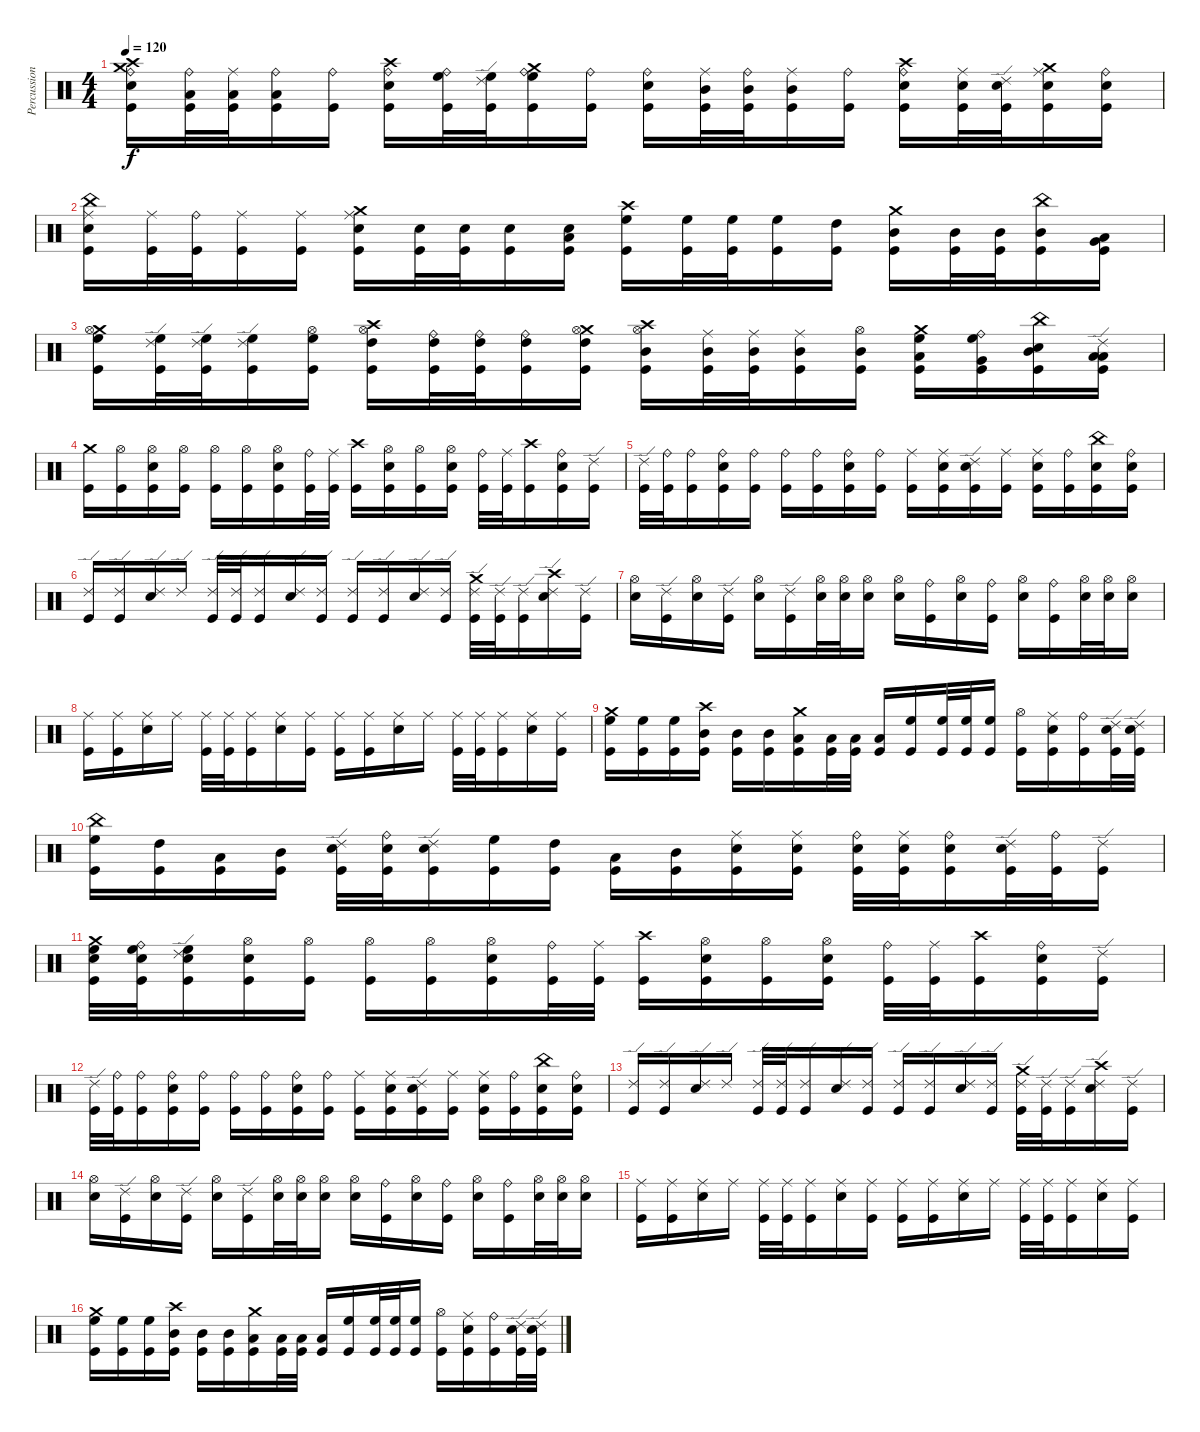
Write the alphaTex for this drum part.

\track ("Percussion" "Percussion") {instrument percussion}
\staff {score}
\articulation defaults
\ts (4 4)
\tempo 120
\clef neutral
\ks c
("Crash medium (hit)" "Crash high (hit)" "Ride (bell)" "Snare (hit) 2" "Kick (hit)").16{dy f} ("Ride (bell)" "Low Tom (hit)" "Kick (hit)").32 ("Ride (middle)" "Low Tom (hit)" "Kick (hit)").32 ("Ride (bell)" "Low Tom (hit)" "Kick (hit)").16 ("Ride (bell)" "Kick (hit)").16 ("Crash high (hit)" "Ride (bell)" "Snare (hit) 2" "Kick (hit)").16 ("Ride (bell)" "High Floor Tom (hit)" "Kick (hit)").32 ("Ride (edge) 2" "High Floor Tom (hit)" "Kick (hit)").32 ("Crash medium (hit)" "Ride (bell)" "High Floor Tom (hit)" "Kick (hit)").16 ("Ride (bell)" "Kick (hit)").16 ("Ride (bell)" "Snare (hit) 2" "Kick (hit)").16 ("Ride (middle)" "Mid Tom (hit)" "Kick (hit)").32 ("Ride (bell)" "Mid Tom (hit)" "Kick (hit)").32 ("Ride (middle)" "Mid Tom (hit)" "Kick (hit)").16 ("Ride (bell)" "Kick (hit)").16 ("Crash high (hit)" "Ride (bell)" "Snare (hit) 2" "Kick (hit)").16 ("Ride (middle)" "Snare (hit) 2" "Kick (hit)").32 ("Ride (edge) 2" "Snare (hit) 2" "Kick (hit)").32 ("Crash medium (hit)" "Ride (middle)" "Snare (hit) 2" "Kick (hit)").16 ("Ride (bell)" "Snare (hit) 2" "Kick (hit)").16 |
("China (hit)" "Ride (middle)" "Snare (hit) 2" "Kick (hit)").16 ("Ride (middle)" "Kick (hit)").32 ("Ride (bell)" "Kick (hit)").32 ("Ride (middle)" "Kick (hit)").16 ("Ride (middle)" "Kick (hit)").16 ("Crash medium (hit)" "Ride (middle)" "Snare (hit) 2" "Kick (hit)").16 ("Snare (hit) 2" "Kick (hit)").32 ("Snare (hit) 2" "Kick (hit)").32 ("Snare (hit) 2" "Kick (hit)").16 ("Snare (hit) 2" "Low Floor Tom (hit)" "Kick (hit)").16 ("Crash high (hit)" "High Floor Tom (hit)" "Kick (hit)").16 ("High Floor Tom (hit)" "Kick (hit)").32 ("High Floor Tom (hit)" "Kick (hit)").32 ("High Floor Tom (hit)" "Kick (hit)").16 ("High Tom (hit)" "Kick (hit)").16 ("Crash medium (hit)" "Mid Tom (hit)" "Kick (hit)").16 ("Mid Tom (hit)" "Kick (hit)").32 ("Mid Tom (hit)" "Kick (hit)").32 ("China (hit)" "Mid Tom (hit)" "Kick (hit)").16 ("Very Low Tom (hit)" "Low Floor Tom (hit)" "Kick (hit)").16 |
("Crash medium (hit)" "Hi-Hat (open)" "High Floor Tom (hit)" "Kick (hit)").16 ("Ride (edge) 2" "High Floor Tom (hit)" "Kick (hit)").32 ("Ride (edge) 2" "High Floor Tom (hit)" "Kick (hit)").32 ("Ride (edge) 2" "High Floor Tom (hit)" "Kick (hit)").16 ("Hi-Hat (open)" "High Floor Tom (hit)" "Kick (hit)").16 ("Crash high (hit)" "Hi-Hat (open)" "High Tom (hit)" "Kick (hit)").16 ("Ride (bell)" "High Tom (hit)" "Kick (hit)").32 ("Ride (bell)" "High Tom (hit)" "Kick (hit)").32 ("Ride (bell)" "High Tom (hit)" "Kick (hit)").16 ("Crash medium (hit)" "Hi-Hat (open)" "High Tom (hit)" "Kick (hit)").16 ("Crash high (hit)" "Hi-Hat (open)" "Mid Tom (hit)" "Kick (hit)").16 ("Ride (middle)" "Mid Tom (hit)" "Kick (hit)").32 ("Ride (middle)" "Mid Tom (hit)" "Kick (hit)").32 ("Ride (middle)" "Mid Tom (hit)" "Kick (hit)").16 ("Hi-Hat (open)" "Mid Tom (hit)" "Kick (hit)").16 ("Crash medium (hit)" "High Floor Tom (hit)" "Low Floor Tom (hit)" "Kick (hit)").16 ("Ride (bell)" "High Floor Tom (hit)" "Very Low Tom (hit)" "Kick (hit)").16 ("China (hit)" "Mid Tom (hit)" "Snare (hit) 2" "Kick (hit)").16 ("Ride (edge) 2" "Low Tom (hit)" "Low Floor Tom (hit)" "Kick (hit)").16 |
("Crash medium (hit)" "Kick (hit)").16 ("Hi-Hat (open)" "Kick (hit)").16 ("Hi-Hat (open)" "Snare (hit) 2" "Kick (hit)").16 ("Hi-Hat (open)" "Kick (hit)").16 ("Hi-Hat (open)" "Kick (hit)").16 ("Hi-Hat (open)" "Kick (hit)").16 ("Hi-Hat (open)" "Snare (hit) 2" "Kick (hit)").16 ("Ride (bell)" "Kick (hit)").32 ("Ride (middle)" "Kick (hit)").32 ("Crash high (hit)" "Kick (hit)").16 ("Hi-Hat (open)" "Snare (hit) 2" "Kick (hit)").16 ("Hi-Hat (open)" "Kick (hit)").16 ("Hi-Hat (open)" "Snare (hit) 2" "Kick (hit)").16 ("Ride (bell)" "Kick (hit)").32 ("Ride (middle)" "Kick (hit)").32 ("Crash high (hit)" "Kick (hit)").16 ("Ride (bell)" "Snare (hit) 2" "Kick (hit)").16 ("Ride (edge) 2" "Kick (hit)").16 |
("Ride (edge) 2" "Kick (hit)").32 ("Ride (bell)" "Kick (hit)").32 ("Ride (bell)" "Kick (hit)").16 ("Ride (bell)" "Snare (hit) 2" "Kick (hit)").16 ("Ride (bell)" "Kick (hit)").16 ("Ride (bell)" "Kick (hit)").16 ("Ride (bell)" "Kick (hit)").16 ("Ride (bell)" "Snare (hit) 2" "Kick (hit)").16 ("Ride (bell)" "Kick (hit)").16 ("Ride (middle)" "Kick (hit)").16 ("Ride (middle)" "Snare (hit) 2" "Kick (hit)").16 ("Ride (edge) 2" "Snare (hit) 2" "Kick (hit)").16 ("Ride (middle)" "Kick (hit)").16 ("Ride (middle)" "Snare (hit) 2" "Kick (hit)").16 ("Ride (bell)" "Kick (hit)").16 ("China (hit)" "Snare (hit) 2" "Kick (hit)").16 ("Ride (bell)" "Snare (hit) 2" "Kick (hit)").16 |
("Ride (edge) 2" "Kick (hit)").16 ("Ride (edge) 2" "Kick (hit)").16 ("Ride (edge) 2" "Snare (hit) 2").16 "Ride (edge) 2".16 ("Ride (edge) 2" "Kick (hit)").32 ("Ride (edge) 2" "Kick (hit)").32 ("Ride (edge) 2" "Kick (hit)").16 ("Ride (edge) 2" "Snare (hit) 2").16 ("Ride (edge) 2" "Kick (hit)").16 ("Ride (edge) 2" "Kick (hit)").16 ("Ride (edge) 2" "Kick (hit)").16 ("Ride (edge) 2" "Snare (hit) 2").16 ("Ride (edge) 2" "Kick (hit)").16 ("Crash medium (hit)" "Ride (edge) 2" "Kick (hit)").32 ("Ride (edge) 2" "Kick (hit)").32 ("Ride (edge) 2" "Kick (hit)").16 ("Crash high (hit)" "Ride (edge) 2" "Snare (hit) 2").16 ("Ride (edge) 2" "Kick (hit)").16 |
("Hi-Hat (open)" "Snare (hit) 2").16 ("Ride (edge) 2" "Kick (hit)").16 ("Hi-Hat (open)" "Snare (hit) 2").16 ("Ride (edge) 2" "Kick (hit)").16 ("Hi-Hat (open)" "Snare (hit) 2").16 ("Ride (edge) 2" "Kick (hit)").16 ("Hi-Hat (open)" "Snare (hit) 2").32 ("Hi-Hat (open)" "Snare (hit) 2").32 ("Hi-Hat (open)" "Snare (hit) 2").16 ("Hi-Hat (open)" "Snare (hit) 2").16 ("Ride (bell)" "Kick (hit)").16 ("Hi-Hat (open)" "Snare (hit) 2").16 ("Ride (bell)" "Kick (hit)").16 ("Hi-Hat (open)" "Snare (hit) 2").16 ("Ride (bell)" "Kick (hit)").16 ("Hi-Hat (open)" "Snare (hit) 2").32 ("Hi-Hat (open)" "Snare (hit) 2").32 ("Hi-Hat (open)" "Snare (hit) 2").16 |
("Ride (middle)" "Kick (hit)").16 ("Ride (middle)" "Kick (hit)").16 ("Ride (middle)" "Snare (hit) 2").16 "Ride (middle)".16 ("Ride (middle)" "Kick (hit)").32 ("Ride (middle)" "Kick (hit)").32 ("Ride (middle)" "Kick (hit)").16 ("Ride (middle)" "Snare (hit) 2").16 ("Ride (middle)" "Kick (hit)").16 ("Ride (middle)" "Kick (hit)").16 ("Ride (middle)" "Kick (hit)").16 ("Ride (middle)" "Snare (hit) 2").16 "Ride (middle)".16 ("Ride (middle)" "Kick (hit)").32 ("Ride (middle)" "Kick (hit)").32 ("Ride (middle)" "Kick (hit)").16 ("Ride (middle)" "Snare (hit) 2").16 ("Ride (middle)" "Kick (hit)").16 |
("Crash medium (hit)" "High Floor Tom (hit)" "Kick (hit)").16 ("High Floor Tom (hit)" "Kick (hit)").16 ("High Floor Tom (hit)" "Kick (hit)").16 ("Crash high (hit)" "Mid Tom (hit)" "Kick (hit)").16 ("Mid Tom (hit)" "Kick (hit)").16 ("Mid Tom (hit)" "Kick (hit)").16 ("Crash medium (hit)" "Low Tom (hit)" "Kick (hit)").16 ("Low Tom (hit)" "Kick (hit)").32 ("Low Tom (hit)" "Kick (hit)").32 ("Low Tom (hit)" "Kick (hit)").16 ("High Floor Tom (hit)" "Kick (hit)").16 ("High Floor Tom (hit)" "Kick (hit)").32 ("High Floor Tom (hit)" "Kick (hit)").32 ("High Floor Tom (hit)" "Kick (hit)").16 ("Hi-Hat (open)" "Kick (hit)").16 ("Ride (middle)" "Snare (hit) 2" "Kick (hit)").16 ("Ride (bell)" "Kick (hit)").16 ("Ride (edge) 2" "Snare (hit) 2" "Kick (hit)").32 ("Ride (edge) 2" "Snare (hit) 2" "Kick (hit)").32 |
("China (hit)" "High Floor Tom (hit)" "Kick (hit)").16 ("High Tom (hit)" "Kick (hit)").16 ("Low Tom (hit)" "Kick (hit)").16 ("Mid Tom (hit)" "Kick (hit)").16 ("Ride (edge) 2" "Snare (hit) 2" "Kick (hit)").32 ("Ride (bell)" "Snare (hit) 2" "Kick (hit)").32 ("Ride (edge) 2" "Snare (hit) 2" "Kick (hit)").16 ("High Floor Tom (hit)" "Kick (hit)").16 ("High Tom (hit)" "Kick (hit)").16 ("Low Tom (hit)" "Kick (hit)").16 ("Mid Tom (hit)" "Kick (hit)").16 ("Ride (middle)" "Snare (hit) 2" "Kick (hit)").16 ("Ride (middle)" "Snare (hit) 2" "Kick (hit)").16 ("Ride (bell)" "Snare (hit) 2" "Kick (hit)").32 ("Ride (middle)" "Snare (hit) 2" "Kick (hit)").32 ("Ride (bell)" "Snare (hit) 2" "Kick (hit)").16 ("Ride (edge) 2" "Snare (hit) 2" "Kick (hit)").32 ("Ride (bell)" "Kick (hit)").32 ("Ride (edge) 2" "Kick (hit)").16 |
("Crash medium (hit)" "High Floor Tom (hit)" "Snare (hit) 2" "Kick (hit)").32 ("Ride (bell)" "High Floor Tom (hit)" "Snare (hit) 2" "Kick (hit)").32 ("Ride (edge) 2" "High Floor Tom (hit)" "Snare (hit) 2" "Kick (hit)").16 ("Hi-Hat (open)" "Snare (hit) 2" "Kick (hit)").16 ("Hi-Hat (open)" "Kick (hit)").16 ("Hi-Hat (open)" "Kick (hit)").16 ("Hi-Hat (open)" "Kick (hit)").16 ("Hi-Hat (open)" "Snare (hit) 2" "Kick (hit)").16 ("Ride (bell)" "Kick (hit)").32 ("Ride (middle)" "Kick (hit)").32 ("Crash high (hit)" "Kick (hit)").16 ("Hi-Hat (open)" "Snare (hit) 2" "Kick (hit)").16 ("Hi-Hat (open)" "Kick (hit)").16 ("Hi-Hat (open)" "Snare (hit) 2" "Kick (hit)").16 ("Ride (bell)" "Kick (hit)").32 ("Ride (middle)" "Kick (hit)").32 ("Crash high (hit)" "Kick (hit)").16 ("Ride (bell)" "Snare (hit) 2" "Kick (hit)").16 ("Ride (edge) 2" "Kick (hit)").16 |
("Ride (edge) 2" "Kick (hit)").32 ("Ride (bell)" "Kick (hit)").32 ("Ride (bell)" "Kick (hit)").16 ("Ride (bell)" "Snare (hit) 2" "Kick (hit)").16 ("Ride (bell)" "Kick (hit)").16 ("Ride (bell)" "Kick (hit)").16 ("Ride (bell)" "Kick (hit)").16 ("Ride (bell)" "Snare (hit) 2" "Kick (hit)").16 ("Ride (bell)" "Kick (hit)").16 ("Ride (middle)" "Kick (hit)").16 ("Ride (middle)" "Snare (hit) 2" "Kick (hit)").16 ("Ride (edge) 2" "Snare (hit) 2" "Kick (hit)").16 ("Ride (middle)" "Kick (hit)").16 ("Ride (middle)" "Snare (hit) 2" "Kick (hit)").16 ("Ride (bell)" "Kick (hit)").16 ("China (hit)" "Snare (hit) 2" "Kick (hit)").16 ("Ride (bell)" "Snare (hit) 2" "Kick (hit)").16 |
("Ride (edge) 2" "Kick (hit)").16 ("Ride (edge) 2" "Kick (hit)").16 ("Ride (edge) 2" "Snare (hit) 2").16 "Ride (edge) 2".16 ("Ride (edge) 2" "Kick (hit)").32 ("Ride (edge) 2" "Kick (hit)").32 ("Ride (edge) 2" "Kick (hit)").16 ("Ride (edge) 2" "Snare (hit) 2").16 ("Ride (edge) 2" "Kick (hit)").16 ("Ride (edge) 2" "Kick (hit)").16 ("Ride (edge) 2" "Kick (hit)").16 ("Ride (edge) 2" "Snare (hit) 2").16 ("Ride (edge) 2" "Kick (hit)").16 ("Crash medium (hit)" "Ride (edge) 2" "Kick (hit)").32 ("Ride (edge) 2" "Kick (hit)").32 ("Ride (edge) 2" "Kick (hit)").16 ("Crash high (hit)" "Ride (edge) 2" "Snare (hit) 2").16 ("Ride (edge) 2" "Kick (hit)").16 |
("Hi-Hat (open)" "Snare (hit) 2").16 ("Ride (edge) 2" "Kick (hit)").16 ("Hi-Hat (open)" "Snare (hit) 2").16 ("Ride (edge) 2" "Kick (hit)").16 ("Hi-Hat (open)" "Snare (hit) 2").16 ("Ride (edge) 2" "Kick (hit)").16 ("Hi-Hat (open)" "Snare (hit) 2").32 ("Hi-Hat (open)" "Snare (hit) 2").32 ("Hi-Hat (open)" "Snare (hit) 2").16 ("Hi-Hat (open)" "Snare (hit) 2").16 ("Ride (bell)" "Kick (hit)").16 ("Hi-Hat (open)" "Snare (hit) 2").16 ("Ride (bell)" "Kick (hit)").16 ("Hi-Hat (open)" "Snare (hit) 2").16 ("Ride (bell)" "Kick (hit)").16 ("Hi-Hat (open)" "Snare (hit) 2").32 ("Hi-Hat (open)" "Snare (hit) 2").32 ("Hi-Hat (open)" "Snare (hit) 2").16 |
("Ride (middle)" "Kick (hit)").16 ("Ride (middle)" "Kick (hit)").16 ("Ride (middle)" "Snare (hit) 2").16 "Ride (middle)".16 ("Ride (middle)" "Kick (hit)").32 ("Ride (middle)" "Kick (hit)").32 ("Ride (middle)" "Kick (hit)").16 ("Ride (middle)" "Snare (hit) 2").16 ("Ride (middle)" "Kick (hit)").16 ("Ride (middle)" "Kick (hit)").16 ("Ride (middle)" "Kick (hit)").16 ("Ride (middle)" "Snare (hit) 2").16 "Ride (middle)".16 ("Ride (middle)" "Kick (hit)").32 ("Ride (middle)" "Kick (hit)").32 ("Ride (middle)" "Kick (hit)").16 ("Ride (middle)" "Snare (hit) 2").16 ("Ride (middle)" "Kick (hit)").16 |
("Crash medium (hit)" "High Floor Tom (hit)" "Kick (hit)").16 ("High Floor Tom (hit)" "Kick (hit)").16 ("High Floor Tom (hit)" "Kick (hit)").16 ("Crash high (hit)" "Mid Tom (hit)" "Kick (hit)").16 ("Mid Tom (hit)" "Kick (hit)").16 ("Mid Tom (hit)" "Kick (hit)").16 ("Crash medium (hit)" "Low Tom (hit)" "Kick (hit)").16 ("Low Tom (hit)" "Kick (hit)").32 ("Low Tom (hit)" "Kick (hit)").32 ("Low Tom (hit)" "Kick (hit)").16 ("High Floor Tom (hit)" "Kick (hit)").16 ("High Floor Tom (hit)" "Kick (hit)").32 ("High Floor Tom (hit)" "Kick (hit)").32 ("High Floor Tom (hit)" "Kick (hit)").16 ("Hi-Hat (open)" "Kick (hit)").16 ("Ride (middle)" "Snare (hit) 2" "Kick (hit)").16 ("Ride (bell)" "Kick (hit)").16 ("Ride (edge) 2" "Snare (hit) 2" "Kick (hit)").32 ("Ride (edge) 2" "Snare (hit) 2" "Kick (hit)").32
